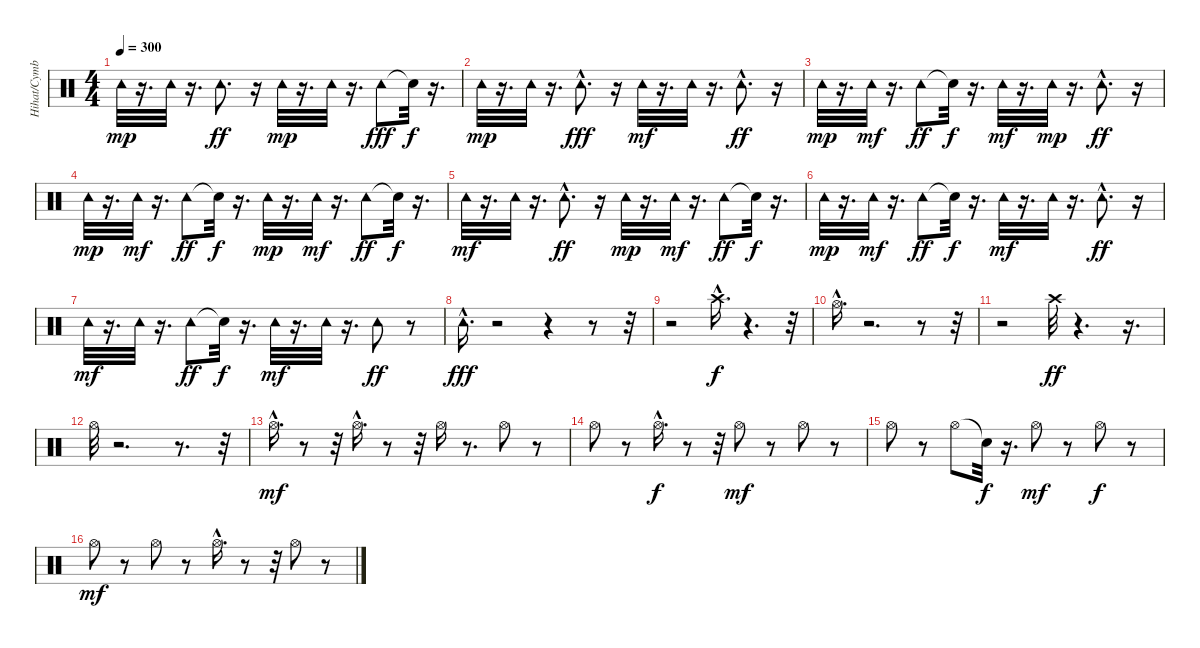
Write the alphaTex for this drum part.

\track ("Hihat/Cymbals/Tambourine" "Hihat/Cymb") {instrument percussion}
\staff {score}
\articulation defaults
\ts (4 4)
\tempo 300
\clef neutral
\ks c "Tambourine (hit)".32{dy mp}
r.16{d} "Tambourine (hit)".32 r.16{d} "Tambourine (hit)".8{d dy ff} r.16 "Tambourine (hit)".32{dy mp} r.16{d} "Tambourine (hit)".32 r.16{d} "Tambourine (hit)".8{dy fff} "Snare (hit)"{t}.32{dy f} r.16{d} |
"Tambourine (hit)".32{dy mp} r.16{d} "Tambourine (hit)".32 r.16{d} "Tambourine (hit)"{hac}.8{d dy fff} r.16 "Tambourine (hit)".32{dy mf} r.16{d} "Tambourine (hit)".32 r.16{d} "Tambourine (hit)"{hac}.8{d dy ff} r.16 |
"Tambourine (hit)".32{dy mp} r.16{d} "Tambourine (hit)".32{dy mf} r.16{d} "Tambourine (hit)".8{dy ff} "Snare (hit)"{t}.32{dy f} r.16{d} "Tambourine (hit)".32{dy mf} r.16{d} "Tambourine (hit)".32{dy mp} r.16{d} "Tambourine (hit)"{hac}.8{d dy ff} r.16 |
"Tambourine (hit)".32{dy mp} r.16{d} "Tambourine (hit)".32{dy mf} r.16{d} "Tambourine (hit)".8{dy ff} "Snare (hit)"{t}.32{dy f} r.16{d} "Tambourine (hit)".32{dy mp} r.16{d} "Tambourine (hit)".32{dy mf} r.16{d} "Tambourine (hit)".8{dy ff} "Snare (hit)"{t}.32{dy f} r.16{d} |
"Tambourine (hit)".32{dy mf} r.16{d} "Tambourine (hit)".32 r.16{d} "Tambourine (hit)"{hac}.8{d dy ff} r.16 "Tambourine (hit)".32{dy mp} r.16{d} "Tambourine (hit)".32{dy mf} r.16{d} "Tambourine (hit)".8{dy ff} "Snare (hit)"{t}.32{dy f} r.16{d} |
"Tambourine (hit)".32{dy mp} r.16{d} "Tambourine (hit)".32{dy mf} r.16{d} "Tambourine (hit)".8{dy ff} "Snare (hit)"{t}.32{dy f} r.16{d} "Tambourine (hit)".32{dy mf} r.16{d} "Tambourine (hit)".32 r.16{d} "Tambourine (hit)"{hac}.8{d dy ff} r.16 |
"Tambourine (hit)".32{dy mf} r.16{d} "Tambourine (hit)".32 r.16{d} "Tambourine (hit)".8{dy ff} "Snare (hit)"{t}.32{dy f} r.16{d} "Tambourine (hit)".32{dy mf} r.16{d} "Tambourine (hit)".32 r.16{d} "Tambourine (hit)".8{dy ff} r.8 |
"Tambourine (hit)"{hac}.16{d dy fff} r.2 r.4 r.8 r.32 |
r.2 "Crash high (hit)"{hac}.16{d dy f} r.4{d} r.32 |
"Hi-Hat (open)"{hac}.16{d} r.2{d} r.8 r.32 |
r.2 "Crash high (hit)".32{dy ff} r.4{d} r.16{d} |
"Hi-Hat (open)".32 r.2{d} r.8{d} r.32 |
"Hi-Hat (open)"{hac}.16{d dy mf} r.8 r.32 "Hi-Hat (open)"{hac}.16{d} r.8 r.32 "Hi-Hat (open)".16 r.8{d} "Hi-Hat (open)".8 r.8 |
"Hi-Hat (open)".8 r.8 "Hi-Hat (open)"{hac}.16{d dy f} r.8 r.32 "Hi-Hat (open)".8{dy mf} r.8 "Hi-Hat (open)".8 r.8 |
"Hi-Hat (open)".8 r.8 "Hi-Hat (open)".8 "Snare (hit)"{t}.32{dy f} r.16{d} "Hi-Hat (open)".8{dy mf} r.8 "Hi-Hat (open)".8{dy f} r.8 |
"Hi-Hat (open)".8{dy mf} r.8 "Hi-Hat (open)".8 r.8 "Hi-Hat (open)"{hac}.16{d} r.8 r.32 "Hi-Hat (open)".8 r.8
